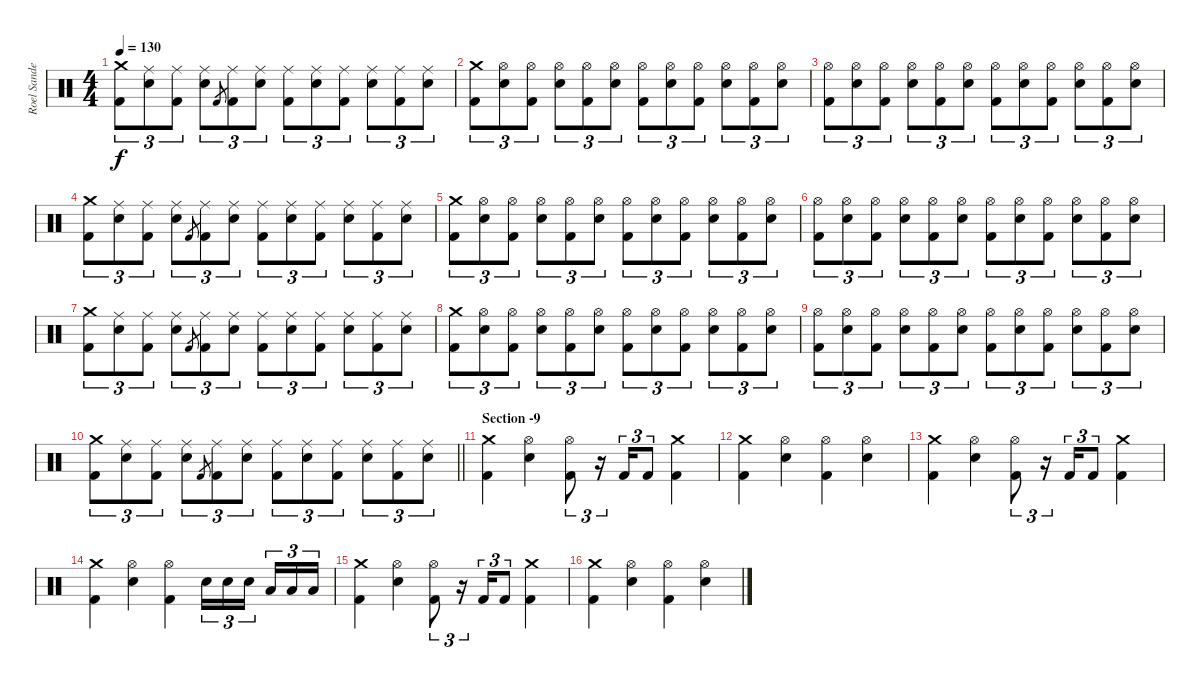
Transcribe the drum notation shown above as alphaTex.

\track ("Roel Sander " "Roel Sande") {instrument percussion}
\staff {score}
\articulation defaults
\ts (4 4)
\tempo 130
\clef neutral
\ks c
("Crash medium (hit)" "Kick (hit) 2").8{tu (3 2) dy f} ("Ride (middle)" "Snare (hit) 2").8{tu (3 2)} ("Ride (middle)" "Kick (hit) 2").8{tu (3 2)} ("Ride (middle)" "Snare (hit) 2").8{tu (3 2)} "Kick (hit) 2".8{gr} ("Ride (middle)" "Kick (hit) 2").8{tu (3 2)} ("Ride (middle)" "Snare (hit) 2").8{tu (3 2)} ("Ride (middle)" "Kick (hit) 2").8{tu (3 2)} ("Ride (middle)" "Snare (hit) 2").8{tu (3 2)} ("Ride (middle)" "Kick (hit) 2").8{tu (3 2)} ("Ride (middle)" "Snare (hit) 2").8{tu (3 2)} ("Ride (middle)" "Kick (hit) 2").8{tu (3 2)} ("Ride (middle)" "Snare (hit) 2").8{tu (3 2)} |
("Crash medium (hit)" "Kick (hit) 2").8{tu (3 2)} ("Hi-Hat (open)" "Snare (hit) 2").8{tu (3 2)} ("Hi-Hat (open)" "Kick (hit) 2").8{tu (3 2)} ("Hi-Hat (open)" "Snare (hit) 2").8{tu (3 2)} ("Hi-Hat (open)" "Kick (hit) 2").8{tu (3 2)} ("Hi-Hat (open)" "Snare (hit) 2").8{tu (3 2)} ("Hi-Hat (open)" "Kick (hit) 2").8{tu (3 2)} ("Hi-Hat (open)" "Snare (hit) 2").8{tu (3 2)} ("Hi-Hat (open)" "Kick (hit) 2").8{tu (3 2)} ("Hi-Hat (open)" "Snare (hit) 2").8{tu (3 2)} ("Hi-Hat (open)" "Kick (hit) 2").8{tu (3 2)} ("Hi-Hat (open)" "Snare (hit) 2").8{tu (3 2)} |
("Hi-Hat (open)" "Kick (hit) 2").8{tu (3 2)} ("Hi-Hat (open)" "Snare (hit) 2").8{tu (3 2)} ("Hi-Hat (open)" "Kick (hit) 2").8{tu (3 2)} ("Hi-Hat (open)" "Snare (hit) 2").8{tu (3 2)} ("Hi-Hat (open)" "Kick (hit) 2").8{tu (3 2)} ("Hi-Hat (open)" "Snare (hit) 2").8{tu (3 2)} ("Hi-Hat (open)" "Kick (hit) 2").8{tu (3 2)} ("Hi-Hat (open)" "Snare (hit) 2").8{tu (3 2)} ("Hi-Hat (open)" "Kick (hit) 2").8{tu (3 2)} ("Hi-Hat (open)" "Snare (hit) 2").8{tu (3 2)} ("Hi-Hat (open)" "Kick (hit) 2").8{tu (3 2)} ("Hi-Hat (open)" "Snare (hit) 2").8{tu (3 2)} |
("Crash medium (hit)" "Kick (hit) 2").8{tu (3 2)} ("Ride (middle)" "Snare (hit) 2").8{tu (3 2)} ("Ride (middle)" "Kick (hit) 2").8{tu (3 2)} ("Ride (middle)" "Snare (hit) 2").8{tu (3 2)} "Kick (hit) 2".8{gr} ("Ride (middle)" "Kick (hit) 2").8{tu (3 2)} ("Ride (middle)" "Snare (hit) 2").8{tu (3 2)} ("Ride (middle)" "Kick (hit) 2").8{tu (3 2)} ("Ride (middle)" "Snare (hit) 2").8{tu (3 2)} ("Ride (middle)" "Kick (hit) 2").8{tu (3 2)} ("Ride (middle)" "Snare (hit) 2").8{tu (3 2)} ("Ride (middle)" "Kick (hit) 2").8{tu (3 2)} ("Ride (middle)" "Snare (hit) 2").8{tu (3 2)} |
("Crash medium (hit)" "Kick (hit) 2").8{tu (3 2)} ("Hi-Hat (open)" "Snare (hit) 2").8{tu (3 2)} ("Hi-Hat (open)" "Kick (hit) 2").8{tu (3 2)} ("Hi-Hat (open)" "Snare (hit) 2").8{tu (3 2)} ("Hi-Hat (open)" "Kick (hit) 2").8{tu (3 2)} ("Hi-Hat (open)" "Snare (hit) 2").8{tu (3 2)} ("Hi-Hat (open)" "Kick (hit) 2").8{tu (3 2)} ("Hi-Hat (open)" "Snare (hit) 2").8{tu (3 2)} ("Hi-Hat (open)" "Kick (hit) 2").8{tu (3 2)} ("Hi-Hat (open)" "Snare (hit) 2").8{tu (3 2)} ("Hi-Hat (open)" "Kick (hit) 2").8{tu (3 2)} ("Hi-Hat (open)" "Snare (hit) 2").8{tu (3 2)} |
("Hi-Hat (open)" "Kick (hit) 2").8{tu (3 2)} ("Hi-Hat (open)" "Snare (hit) 2").8{tu (3 2)} ("Hi-Hat (open)" "Kick (hit) 2").8{tu (3 2)} ("Hi-Hat (open)" "Snare (hit) 2").8{tu (3 2)} ("Hi-Hat (open)" "Kick (hit) 2").8{tu (3 2)} ("Hi-Hat (open)" "Snare (hit) 2").8{tu (3 2)} ("Hi-Hat (open)" "Kick (hit) 2").8{tu (3 2)} ("Hi-Hat (open)" "Snare (hit) 2").8{tu (3 2)} ("Hi-Hat (open)" "Kick (hit) 2").8{tu (3 2)} ("Hi-Hat (open)" "Snare (hit) 2").8{tu (3 2)} ("Hi-Hat (open)" "Kick (hit) 2").8{tu (3 2)} ("Hi-Hat (open)" "Snare (hit) 2").8{tu (3 2)} |
("Crash medium (hit)" "Kick (hit) 2").8{tu (3 2)} ("Ride (middle)" "Snare (hit) 2").8{tu (3 2)} ("Ride (middle)" "Kick (hit) 2").8{tu (3 2)} ("Ride (middle)" "Snare (hit) 2").8{tu (3 2)} "Kick (hit) 2".8{gr} ("Ride (middle)" "Kick (hit) 2").8{tu (3 2)} ("Ride (middle)" "Snare (hit) 2").8{tu (3 2)} ("Ride (middle)" "Kick (hit) 2").8{tu (3 2)} ("Ride (middle)" "Snare (hit) 2").8{tu (3 2)} ("Ride (middle)" "Kick (hit) 2").8{tu (3 2)} ("Ride (middle)" "Snare (hit) 2").8{tu (3 2)} ("Ride (middle)" "Kick (hit) 2").8{tu (3 2)} ("Ride (middle)" "Snare (hit) 2").8{tu (3 2)} |
("Crash medium (hit)" "Kick (hit) 2").8{tu (3 2)} ("Hi-Hat (open)" "Snare (hit) 2").8{tu (3 2)} ("Hi-Hat (open)" "Kick (hit) 2").8{tu (3 2)} ("Hi-Hat (open)" "Snare (hit) 2").8{tu (3 2)} ("Hi-Hat (open)" "Kick (hit) 2").8{tu (3 2)} ("Hi-Hat (open)" "Snare (hit) 2").8{tu (3 2)} ("Hi-Hat (open)" "Kick (hit) 2").8{tu (3 2)} ("Hi-Hat (open)" "Snare (hit) 2").8{tu (3 2)} ("Hi-Hat (open)" "Kick (hit) 2").8{tu (3 2)} ("Hi-Hat (open)" "Snare (hit) 2").8{tu (3 2)} ("Hi-Hat (open)" "Kick (hit) 2").8{tu (3 2)} ("Hi-Hat (open)" "Snare (hit) 2").8{tu (3 2)} |
("Hi-Hat (open)" "Kick (hit) 2").8{tu (3 2)} ("Hi-Hat (open)" "Snare (hit) 2").8{tu (3 2)} ("Hi-Hat (open)" "Kick (hit) 2").8{tu (3 2)} ("Hi-Hat (open)" "Snare (hit) 2").8{tu (3 2)} ("Hi-Hat (open)" "Kick (hit) 2").8{tu (3 2)} ("Hi-Hat (open)" "Snare (hit) 2").8{tu (3 2)} ("Hi-Hat (open)" "Kick (hit) 2").8{tu (3 2)} ("Hi-Hat (open)" "Snare (hit) 2").8{tu (3 2)} ("Hi-Hat (open)" "Kick (hit) 2").8{tu (3 2)} ("Hi-Hat (open)" "Snare (hit) 2").8{tu (3 2)} ("Hi-Hat (open)" "Kick (hit) 2").8{tu (3 2)} ("Hi-Hat (open)" "Snare (hit) 2").8{tu (3 2)} |
\barLineRight lightlight
("Crash medium (hit)" "Kick (hit) 2").8{tu (3 2)} ("Ride (middle)" "Snare (hit) 2").8{tu (3 2)} ("Ride (middle)" "Kick (hit) 2").8{tu (3 2)} ("Ride (middle)" "Snare (hit) 2").8{tu (3 2)} "Kick (hit) 2".8{gr} ("Ride (middle)" "Kick (hit) 2").8{tu (3 2)} ("Ride (middle)" "Snare (hit) 2").8{tu (3 2)} ("Ride (middle)" "Kick (hit) 2").8{tu (3 2)} ("Ride (middle)" "Snare (hit) 2").8{tu (3 2)} ("Ride (middle)" "Kick (hit) 2").8{tu (3 2)} ("Ride (middle)" "Snare (hit) 2").8{tu (3 2)} ("Ride (middle)" "Kick (hit) 2").8{tu (3 2)} ("Ride (middle)" "Snare (hit) 2").8{tu (3 2)} |
\section ("" "Section -9")
("Crash medium (hit)" "Kick (hit) 2").4 ("Hi-Hat (open)" "Snare (hit) 2").4 ("Hi-Hat (open)" "Kick (hit) 2").8{tu (3 2)} r.16{tu (3 2)} "Kick (hit) 2".16{tu (3 2)} "Kick (hit) 2".8{tu (3 2)} ("Crash medium (hit)" "Kick (hit) 2").4 |
("Crash medium (hit)" "Kick (hit) 2").4 ("Hi-Hat (open)" "Snare (hit) 2").4 ("Hi-Hat (open)" "Kick (hit) 2").4 ("Hi-Hat (open)" "Snare (hit) 2").4 |
("Crash medium (hit)" "Kick (hit) 2").4 ("Hi-Hat (open)" "Snare (hit) 2").4 ("Hi-Hat (open)" "Kick (hit) 2").8{tu (3 2)} r.16{tu (3 2)} "Kick (hit) 2".16{tu (3 2)} "Kick (hit) 2".8{tu (3 2)} ("Crash medium (hit)" "Kick (hit) 2").4 |
("Crash medium (hit)" "Kick (hit) 2").4 ("Hi-Hat (open)" "Snare (hit) 2").4 ("Hi-Hat (open)" "Kick (hit) 2").4 "Snare (hit) 2".16{tu (3 2)} "Snare (hit) 2".16{tu (3 2)} "Snare (hit) 2".16{tu (3 2) beam splitsecondary} "Low Tom (hit)".16{tu (3 2)} "Low Tom (hit)".16{tu (3 2)} "Low Tom (hit)".16{tu (3 2)} |
("Crash medium (hit)" "Kick (hit) 2").4 ("Hi-Hat (open)" "Snare (hit) 2").4 ("Hi-Hat (open)" "Kick (hit) 2").8{tu (3 2)} r.16{tu (3 2)} "Kick (hit) 2".16{tu (3 2)} "Kick (hit) 2".8{tu (3 2)} ("Crash medium (hit)" "Kick (hit) 2").4 |
("Crash medium (hit)" "Kick (hit) 2").4 ("Hi-Hat (open)" "Snare (hit) 2").4 ("Hi-Hat (open)" "Kick (hit) 2").4 ("Hi-Hat (open)" "Snare (hit) 2").4
